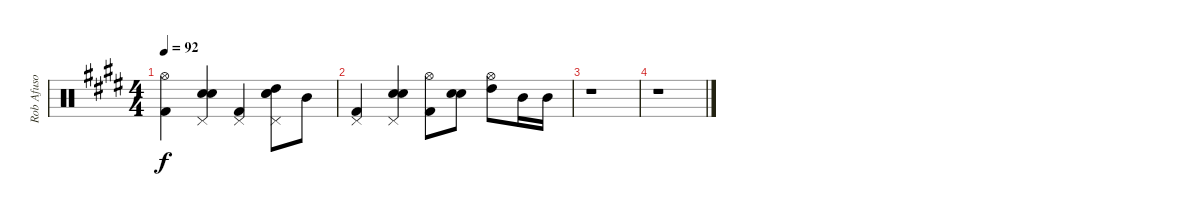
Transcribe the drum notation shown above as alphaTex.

\track ("Rob Afuso" "Rob Afuso") {instrument percussion}
\staff {score}
\articulation defaults
\ts (4 4)
\tempo 92
\clef neutral
\ks e
("Hi-Hat (open)" "Kick (hit) 2").4{dy f} ("Snare (hit) 2" "Electric Snare (hit)" "Pedal Hi-Hat (hit)").4 ("Kick (hit) 2" "Pedal Hi-Hat (hit)").4 ("Snare (hit) 2" "Electric Snare (hit)" "High Tom (hit)" "Pedal Hi-Hat (hit)").8 "Mid Tom (hit)".8 |
("Kick (hit) 2" "Pedal Hi-Hat (hit)").4 ("Snare (hit) 2" "Electric Snare (hit)" "Pedal Hi-Hat (hit)").4 ("Hi-Hat (open)" "Kick (hit) 2").8 ("Snare (hit) 2" "Electric Snare (hit)").8 ("Hi-Hat (open)" "High Tom (hit)").8 "Mid Tom (hit)".16 "Mid Tom (hit)".16 |
r.1 |
r.1
